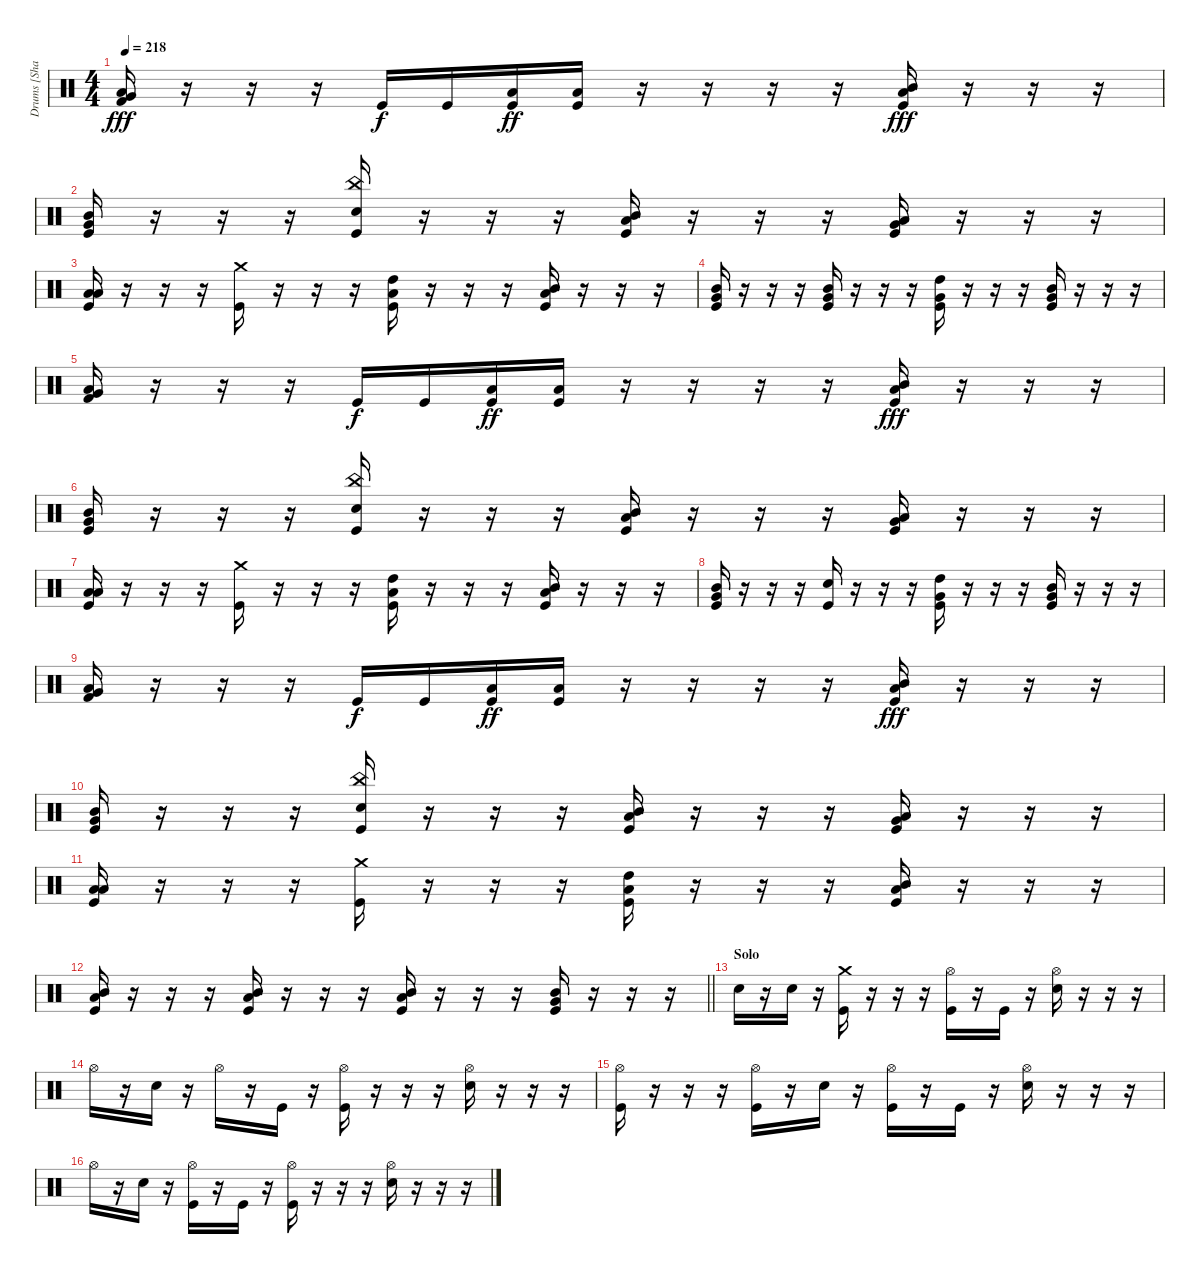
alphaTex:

\track ("Drums [Shannon Larkin]" "Drums [Sha") {instrument percussion}
\staff {score}
\articulation defaults
\ts (4 4)
\tempo 218
\clef neutral
\ks c
("Low Tom (hit)" "Very Low Tom (hit)" "Kick (hit) 2").16{dy fff} r.16 r.16 r.16 "Kick (hit)".16{dy f} "Kick (hit)".16 ("Low Tom (hit)" "Kick (hit)").16{dy ff} ("Low Floor Tom (hit)" "Kick (hit)").16 r.16 r.16 r.16 r.16 ("Mid Tom (hit)" "Low Tom (hit)" "Kick (hit)").16{dy fff} r.16 r.16 r.16 |
("Mid Tom (hit)" "Very Low Tom (hit)" "Kick (hit)").16 r.16 r.16 r.16 ("China (hit)" "Electric Snare (hit)" "Kick (hit)").16 r.16 r.16 r.16 ("Mid Tom (hit)" "Low Tom (hit)" "Kick (hit)").16 r.16 r.16 r.16 ("Low Tom (hit)" "Very Low Tom (hit)" "Kick (hit)").16 r.16 r.16 r.16 |
("Low Tom (hit)" "Low Floor Tom (hit)" "Kick (hit)").16 r.16 r.16 r.16 ("Crash medium (hit)" "Kick (hit)").16 r.16 r.16 r.16 ("High Tom (hit)" "Low Tom (hit)" "Kick (hit)").16 r.16 r.16 r.16 ("Mid Tom (hit)" "Low Tom (hit)" "Kick (hit)").16 r.16 r.16 r.16 |
("Mid Tom (hit)" "Very Low Tom (hit)" "Kick (hit)").16 r.16 r.16 r.16 ("Mid Tom (hit)" "Very Low Tom (hit)" "Kick (hit)").16 r.16 r.16 r.16 ("High Tom (hit)" "Very Low Tom (hit)" "Kick (hit)").16 r.16 r.16 r.16 ("Mid Tom (hit)" "Very Low Tom (hit)" "Kick (hit)").16 r.16 r.16 r.16 |
("Low Tom (hit)" "Very Low Tom (hit)" "Kick (hit) 2").16 r.16 r.16 r.16 "Kick (hit)".16{dy f} "Kick (hit)".16 ("Low Tom (hit)" "Kick (hit)").16{dy ff} ("Low Floor Tom (hit)" "Kick (hit)").16 r.16 r.16 r.16 r.16 ("Mid Tom (hit)" "Low Tom (hit)" "Kick (hit)").16{dy fff} r.16 r.16 r.16 |
("Mid Tom (hit)" "Very Low Tom (hit)" "Kick (hit)").16 r.16 r.16 r.16 ("China (hit)" "Electric Snare (hit)" "Kick (hit)").16 r.16 r.16 r.16 ("Mid Tom (hit)" "Low Tom (hit)" "Kick (hit)").16 r.16 r.16 r.16 ("Low Tom (hit)" "Very Low Tom (hit)" "Kick (hit)").16 r.16 r.16 r.16 |
("Low Tom (hit)" "Low Floor Tom (hit)" "Kick (hit)").16 r.16 r.16 r.16 ("Crash medium (hit)" "Kick (hit)").16 r.16 r.16 r.16 ("High Tom (hit)" "Low Tom (hit)" "Kick (hit)").16 r.16 r.16 r.16 ("Mid Tom (hit)" "Low Tom (hit)" "Kick (hit)").16 r.16 r.16 r.16 |
("Mid Tom (hit)" "Very Low Tom (hit)" "Kick (hit)").16 r.16 r.16 r.16 ("Electric Snare (hit)" "Kick (hit)").16 r.16 r.16 r.16 ("High Tom (hit)" "Very Low Tom (hit)" "Kick (hit)").16 r.16 r.16 r.16 ("Mid Tom (hit)" "Very Low Tom (hit)" "Kick (hit)").16 r.16 r.16 r.16 |
("Low Tom (hit)" "Very Low Tom (hit)" "Kick (hit) 2").16 r.16 r.16 r.16 "Kick (hit)".16{dy f} "Kick (hit)".16 ("Low Tom (hit)" "Kick (hit)").16{dy ff} ("Low Floor Tom (hit)" "Kick (hit)").16 r.16 r.16 r.16 r.16 ("Mid Tom (hit)" "Low Tom (hit)" "Kick (hit)").16{dy fff} r.16 r.16 r.16 |
("Mid Tom (hit)" "Very Low Tom (hit)" "Kick (hit)").16 r.16 r.16 r.16 ("China (hit)" "Electric Snare (hit)" "Kick (hit)").16 r.16 r.16 r.16 ("Mid Tom (hit)" "Low Tom (hit)" "Kick (hit)").16 r.16 r.16 r.16 ("Low Tom (hit)" "Very Low Tom (hit)" "Kick (hit)").16 r.16 r.16 r.16 |
("Low Tom (hit)" "Low Floor Tom (hit)" "Kick (hit)").16 r.16 r.16 r.16 ("Crash medium (hit)" "Kick (hit)").16 r.16 r.16 r.16 ("High Tom (hit)" "Low Tom (hit)" "Kick (hit)").16 r.16 r.16 r.16 ("Mid Tom (hit)" "Low Tom (hit)" "Kick (hit)").16 r.16 r.16 r.16 |
\barLineRight lightlight
("Mid Tom (hit)" "Low Tom (hit)" "Kick (hit)").16 r.16 r.16 r.16 ("Mid Tom (hit)" "Low Tom (hit)" "Kick (hit)").16 r.16 r.16 r.16 ("Mid Tom (hit)" "Low Tom (hit)" "Kick (hit)").16 r.16 r.16 r.16 ("Mid Tom (hit)" "Very Low Tom (hit)" "Kick (hit)").16 r.16 r.16 r.16 |
\section ("" "Solo")
"Electric Snare (hit)".16 r.16 "Electric Snare (hit)".16 r.16 ("Crash medium (hit)" "Kick (hit)").16 r.16 r.16 r.16 ("Hi-Hat (open)" "Kick (hit)").16 r.16 "Kick (hit)".16 r.16 ("Hi-Hat (open)" "Electric Snare (hit)").16 r.16 r.16 r.16 |
"Hi-Hat (open)".16 r.16 "Electric Snare (hit)".16 r.16 "Hi-Hat (open)".16 r.16 "Kick (hit)".16 r.16 ("Hi-Hat (open)" "Kick (hit)").16 r.16 r.16 r.16 ("Hi-Hat (open)" "Electric Snare (hit)").16 r.16 r.16 r.16 |
("Hi-Hat (open)" "Kick (hit)").16 r.16 r.16 r.16 ("Hi-Hat (open)" "Kick (hit)").16 r.16 "Electric Snare (hit)".16 r.16 ("Hi-Hat (open)" "Kick (hit)").16 r.16 "Kick (hit)".16 r.16 ("Hi-Hat (open)" "Electric Snare (hit)").16 r.16 r.16 r.16 |
"Hi-Hat (open)".16 r.16 "Electric Snare (hit)".16 r.16 ("Hi-Hat (open)" "Kick (hit)").16 r.16 "Kick (hit)".16 r.16 ("Hi-Hat (open)" "Kick (hit)").16 r.16 r.16 r.16 ("Hi-Hat (open)" "Electric Snare (hit)").16 r.16 r.16 r.16
